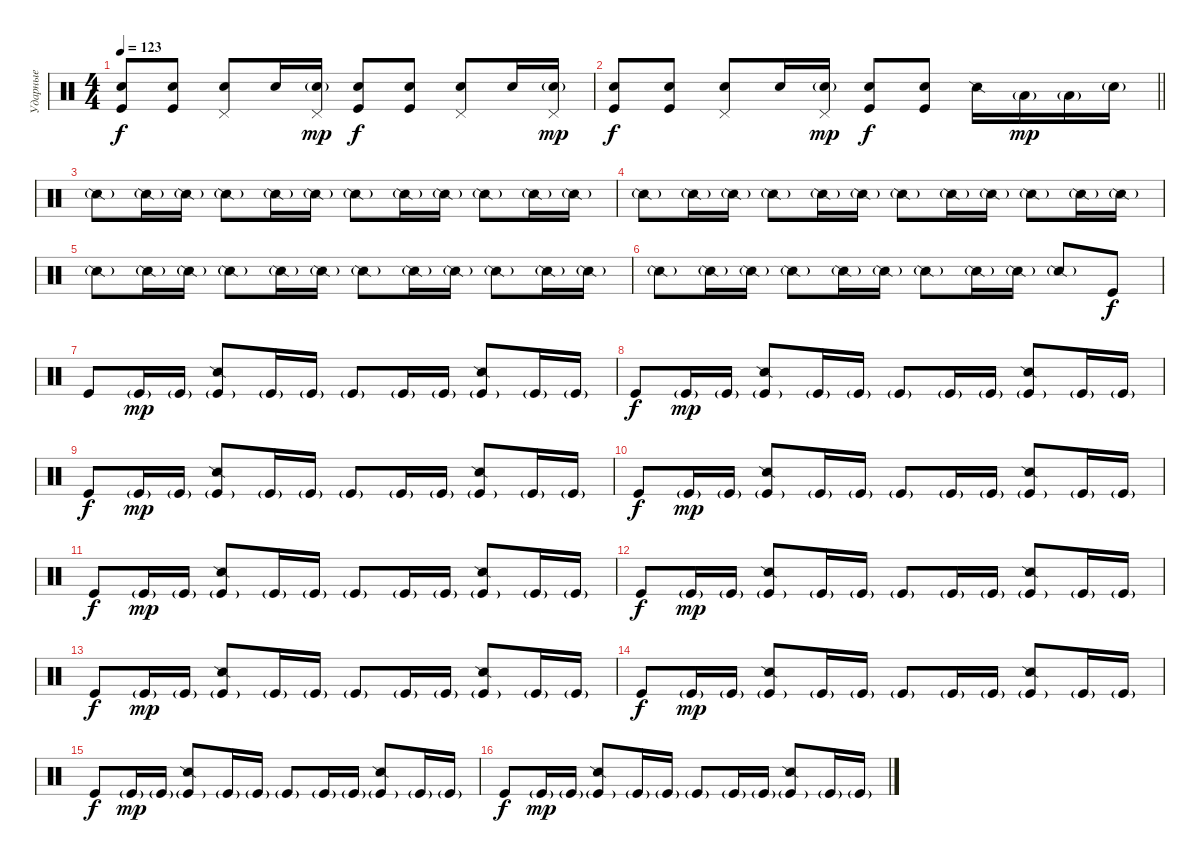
\track ("Ударные" "Ударные") {instrument percussion}
\staff {score}
\articulation defaults
\ts (4 4)
\tempo 123
\clef neutral
\ks c
("Hand Clap (hit)" "Kick (hit)").8{dy f} ("Hand Clap (hit)" "Kick (hit)").8 ("Pedal Hi-Hat (hit)" "Snare (hit) 2").8 "Hand Clap (hit)".16 ("Pedal Hi-Hat (hit)" "Snare (hit) 2"{g}).16{dy mp} ("Hand Clap (hit)" "Kick (hit)").8{dy f} ("Hand Clap (hit)" "Kick (hit)").8 ("Pedal Hi-Hat (hit)" "Snare (hit) 2").8 "Hand Clap (hit)".16 ("Pedal Hi-Hat (hit)" "Snare (hit) 2"{g}).16{dy mp} |
\barLineRight lightlight
("Hand Clap (hit)" "Kick (hit)").8{dy f} ("Hand Clap (hit)" "Kick (hit)").8 ("Pedal Hi-Hat (hit)" "Snare (hit) 2").8 "Hand Clap (hit)".16 ("Pedal Hi-Hat (hit)" "Snare (hit) 2"{g}).16{dy mp} ("Hand Clap (hit)" "Kick (hit)").8{dy f} ("Hand Clap (hit)" "Kick (hit)").8 "Snare (side stick) 2".16 "Low Tom (hit)"{g}.16{dy mp} "Low Tom (hit)"{g}.16 "Snare (hit) 2"{g}.16 |
"Snare (side stick) 2"{g}.8 "Snare (side stick) 2"{g}.16 "Snare (side stick) 2"{g}.16 "Snare (side stick) 2"{g}.8 "Snare (side stick) 2"{g}.16 "Snare (side stick) 2"{g}.16 "Snare (side stick) 2"{g}.8 "Snare (side stick) 2"{g}.16 "Snare (side stick) 2"{g}.16 "Snare (side stick) 2"{g}.8 "Snare (side stick) 2"{g}.16 "Snare (side stick) 2"{g}.16 |
"Snare (side stick) 2"{g}.8 "Snare (side stick) 2"{g}.16 "Snare (side stick) 2"{g}.16 "Snare (side stick) 2"{g}.8 "Snare (side stick) 2"{g}.16 "Snare (side stick) 2"{g}.16 "Snare (side stick) 2"{g}.8 "Snare (side stick) 2"{g}.16 "Snare (side stick) 2"{g}.16 "Snare (side stick) 2"{g}.8 "Snare (side stick) 2"{g}.16 "Snare (side stick) 2"{g}.16 |
"Snare (side stick) 2"{g}.8 "Snare (side stick) 2"{g}.16 "Snare (side stick) 2"{g}.16 "Snare (side stick) 2"{g}.8 "Snare (side stick) 2"{g}.16 "Snare (side stick) 2"{g}.16 "Snare (side stick) 2"{g}.8 "Snare (side stick) 2"{g}.16 "Snare (side stick) 2"{g}.16 "Snare (side stick) 2"{g}.8 "Snare (side stick) 2"{g}.16 "Snare (side stick) 2"{g}.16 |
"Snare (side stick) 2"{g}.8 "Snare (side stick) 2"{g}.16 "Snare (side stick) 2"{g}.16 "Snare (side stick) 2"{g}.8 "Snare (side stick) 2"{g}.16 "Snare (side stick) 2"{g}.16 "Snare (side stick) 2"{g}.8 "Snare (side stick) 2"{g}.16 "Snare (side stick) 2"{g}.16 "Snare (side stick) 2"{g}.8 "Kick (hit)".8{dy f} |
"Kick (hit)".8 "Kick (hit)"{g}.16{dy mp} "Kick (hit)"{g}.16 ("Snare (side stick) 2" "Kick (hit)"{g}).8 "Kick (hit)"{g}.16 "Kick (hit)"{g}.16 "Kick (hit)"{g}.8 "Kick (hit)"{g}.16 "Kick (hit)"{g}.16 ("Snare (side stick) 2" "Kick (hit)"{g}).8 "Kick (hit)"{g}.16 "Kick (hit)"{g}.16 |
"Kick (hit)".8{dy f} "Kick (hit)"{g}.16{dy mp} "Kick (hit)"{g}.16 ("Snare (side stick) 2" "Kick (hit)"{g}).8 "Kick (hit)"{g}.16 "Kick (hit)"{g}.16 "Kick (hit)"{g}.8 "Kick (hit)"{g}.16 "Kick (hit)"{g}.16 ("Snare (side stick) 2" "Kick (hit)"{g}).8 "Kick (hit)"{g}.16 "Kick (hit)"{g}.16 |
"Kick (hit)".8{dy f} "Kick (hit)"{g}.16{dy mp} "Kick (hit)"{g}.16 ("Snare (side stick) 2" "Kick (hit)"{g}).8 "Kick (hit)"{g}.16 "Kick (hit)"{g}.16 "Kick (hit)"{g}.8 "Kick (hit)"{g}.16 "Kick (hit)"{g}.16 ("Snare (side stick) 2" "Kick (hit)"{g}).8 "Kick (hit)"{g}.16 "Kick (hit)"{g}.16 |
"Kick (hit)".8{dy f} "Kick (hit)"{g}.16{dy mp} "Kick (hit)"{g}.16 ("Snare (side stick) 2" "Kick (hit)"{g}).8 "Kick (hit)"{g}.16 "Kick (hit)"{g}.16 "Kick (hit)"{g}.8 "Kick (hit)"{g}.16 "Kick (hit)"{g}.16 ("Snare (side stick) 2" "Kick (hit)"{g}).8 "Kick (hit)"{g}.16 "Kick (hit)"{g}.16 |
"Kick (hit)".8{dy f} "Kick (hit)"{g}.16{dy mp} "Kick (hit)"{g}.16 ("Snare (side stick) 2" "Kick (hit)"{g}).8 "Kick (hit)"{g}.16 "Kick (hit)"{g}.16 "Kick (hit)"{g}.8 "Kick (hit)"{g}.16 "Kick (hit)"{g}.16 ("Snare (side stick) 2" "Kick (hit)"{g}).8 "Kick (hit)"{g}.16 "Kick (hit)"{g}.16 |
"Kick (hit)".8{dy f} "Kick (hit)"{g}.16{dy mp} "Kick (hit)"{g}.16 ("Snare (side stick) 2" "Kick (hit)"{g}).8 "Kick (hit)"{g}.16 "Kick (hit)"{g}.16 "Kick (hit)"{g}.8 "Kick (hit)"{g}.16 "Kick (hit)"{g}.16 ("Snare (side stick) 2" "Kick (hit)"{g}).8 "Kick (hit)"{g}.16 "Kick (hit)"{g}.16 |
"Kick (hit)".8{dy f} "Kick (hit)"{g}.16{dy mp} "Kick (hit)"{g}.16 ("Snare (side stick) 2" "Kick (hit)"{g}).8 "Kick (hit)"{g}.16 "Kick (hit)"{g}.16 "Kick (hit)"{g}.8 "Kick (hit)"{g}.16 "Kick (hit)"{g}.16 ("Snare (side stick) 2" "Kick (hit)"{g}).8 "Kick (hit)"{g}.16 "Kick (hit)"{g}.16 |
"Kick (hit)".8{dy f} "Kick (hit)"{g}.16{dy mp} "Kick (hit)"{g}.16 ("Snare (side stick) 2" "Kick (hit)"{g}).8 "Kick (hit)"{g}.16 "Kick (hit)"{g}.16 "Kick (hit)"{g}.8 "Kick (hit)"{g}.16 "Kick (hit)"{g}.16 ("Snare (side stick) 2" "Kick (hit)"{g}).8 "Kick (hit)"{g}.16 "Kick (hit)"{g}.16 |
"Kick (hit)".8{dy f} "Kick (hit)"{g}.16{dy mp} "Kick (hit)"{g}.16 ("Snare (side stick) 2" "Kick (hit)"{g}).8 "Kick (hit)"{g}.16 "Kick (hit)"{g}.16 "Kick (hit)"{g}.8 "Kick (hit)"{g}.16 "Kick (hit)"{g}.16 ("Snare (side stick) 2" "Kick (hit)"{g}).8 "Kick (hit)"{g}.16 "Kick (hit)"{g}.16 |
"Kick (hit)".8{dy f} "Kick (hit)"{g}.16{dy mp} "Kick (hit)"{g}.16 ("Snare (side stick) 2" "Kick (hit)"{g}).8 "Kick (hit)"{g}.16 "Kick (hit)"{g}.16 "Kick (hit)"{g}.8 "Kick (hit)"{g}.16 "Kick (hit)"{g}.16 ("Snare (side stick) 2" "Kick (hit)"{g}).8 "Kick (hit)"{g}.16 "Kick (hit)"{g}.16
